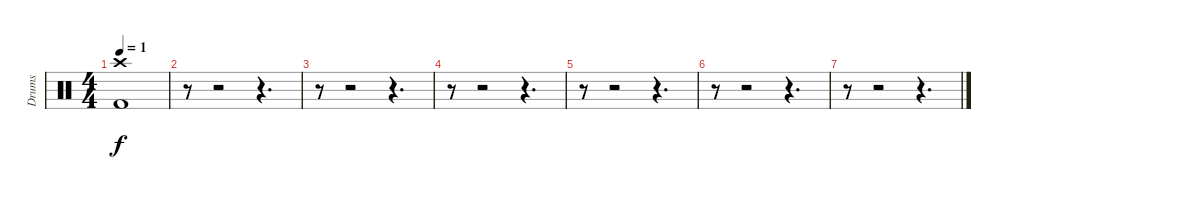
\track ("Drums" "Drums") {instrument percussion}
\staff {score}
\articulation defaults
\ts (4 4)
\tempo 1
\clef neutral
\ks c
("Crash high (hit)" "Kick (hit) 2").1{dy f} |
r.8 r.2 r.4{d} |
r.8 r.2 r.4{d} |
r.8 r.2 r.4{d} |
r.8 r.2 r.4{d} |
r.8 r.2 r.4{d} |
r.8 r.2 r.4{d}
